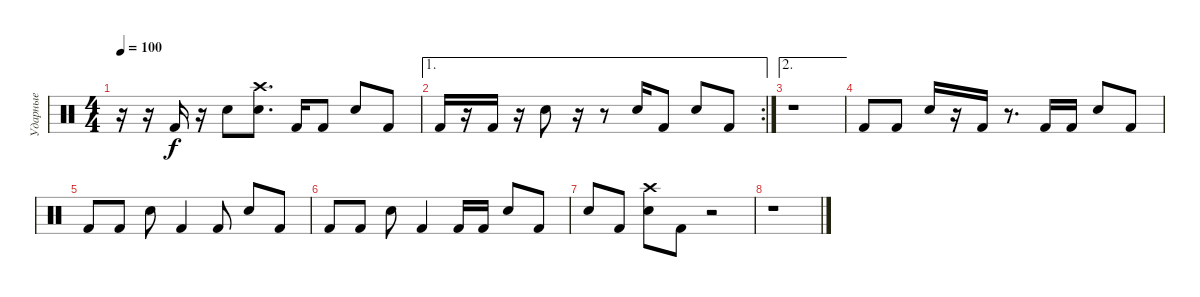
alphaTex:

\track ("Ударные" "Ударные") {instrument percussion}
\staff {score}
\articulation defaults
\ts (4 4)
\tempo 100
\clef neutral
\ks c
r.16{dy f} r.16 "Kick (hit) 2".16 r.16 "Snare (hit) 2".8 ("Crash high (hit)" "Snare (hit) 2").8{d} "Kick (hit) 2".16 "Kick (hit) 2".8 "Snare (hit) 2".8 "Kick (hit) 2".8 |
\ae 1
\rc 2 "Kick (hit) 2".16
r.16 "Kick (hit) 2".16 r.16 "Snare (hit) 2".8 r.16 r.8 "Snare (hit) 2".16 "Kick (hit) 2".8 "Snare (hit) 2".8 "Kick (hit) 2".8 |
\ae 2
r.1 |
"Kick (hit) 2".8 "Kick (hit) 2".8 "Snare (hit) 2".16 r.16 "Kick (hit) 2".16 r.8{d} "Kick (hit) 2".16 "Kick (hit) 2".16 "Snare (hit) 2".8 "Kick (hit) 2".8 |
"Kick (hit) 2".8 "Kick (hit) 2".8 "Snare (hit) 2".8 "Kick (hit) 2".4 "Kick (hit) 2".8 "Snare (hit) 2".8 "Kick (hit) 2".8 |
"Kick (hit) 2".8 "Kick (hit) 2".8 "Snare (hit) 2".8 "Kick (hit) 2".4 "Kick (hit) 2".16 "Kick (hit) 2".16 "Snare (hit) 2".8 "Kick (hit) 2".8 |
"Snare (hit) 2".8 "Kick (hit) 2".8 ("Crash high (hit)" "Snare (hit) 2").8 "Kick (hit) 2".8 r.2 |
r.1
